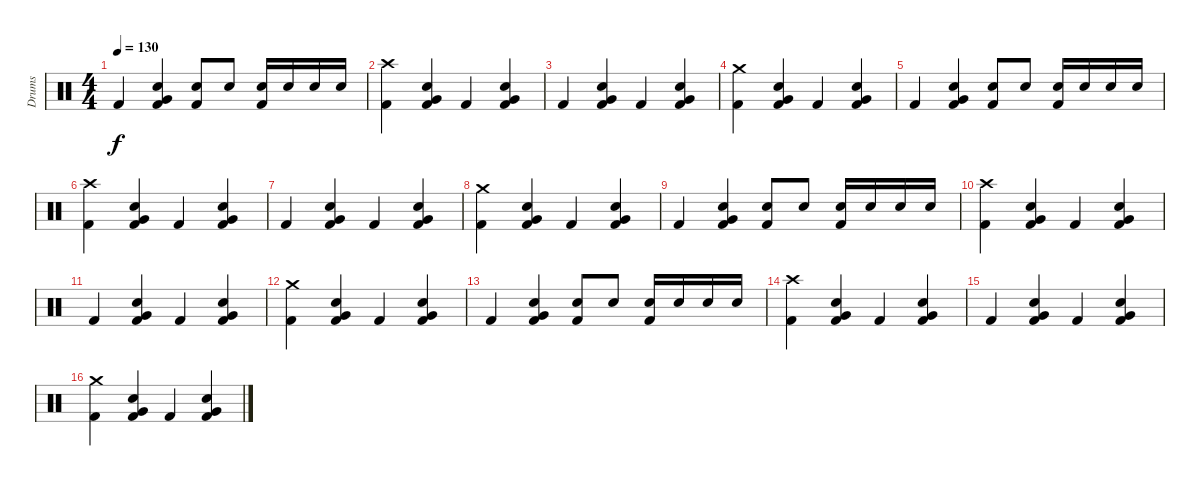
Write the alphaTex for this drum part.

\track ("Drums" "Drums") {instrument percussion}
\staff {score}
\articulation defaults
\ts (4 4)
\tempo 130
\clef neutral
\ks c "Kick (hit) 2".4{dy f}
("Electric Snare (hit)" "Very Low Tom (hit)" "Kick (hit) 2").4 ("Electric Snare (hit)" "Kick (hit) 2").8 "Electric Snare (hit)".8 ("Electric Snare (hit)" "Kick (hit) 2").16 "Electric Snare (hit)".16 "Electric Snare (hit)".16 "Electric Snare (hit)".16 |
("Crash high (hit)" "Kick (hit) 2").4 ("Electric Snare (hit)" "Very Low Tom (hit)" "Kick (hit) 2").4 "Kick (hit) 2".4 ("Electric Snare (hit)" "Very Low Tom (hit)" "Kick (hit) 2").4 |
"Kick (hit) 2".4 ("Electric Snare (hit)" "Very Low Tom (hit)" "Kick (hit) 2").4 "Kick (hit) 2".4 ("Electric Snare (hit)" "Very Low Tom (hit)" "Kick (hit) 2").4 |
("Crash medium (hit)" "Kick (hit) 2").4 ("Electric Snare (hit)" "Very Low Tom (hit)" "Kick (hit) 2").4 "Kick (hit) 2".4 ("Electric Snare (hit)" "Very Low Tom (hit)" "Kick (hit) 2").4 |
"Kick (hit) 2".4 ("Electric Snare (hit)" "Very Low Tom (hit)" "Kick (hit) 2").4 ("Electric Snare (hit)" "Kick (hit) 2").8 "Electric Snare (hit)".8 ("Electric Snare (hit)" "Kick (hit) 2").16 "Electric Snare (hit)".16 "Electric Snare (hit)".16 "Electric Snare (hit)".16 |
("Crash high (hit)" "Kick (hit) 2").4 ("Electric Snare (hit)" "Very Low Tom (hit)" "Kick (hit) 2").4 "Kick (hit) 2".4 ("Electric Snare (hit)" "Very Low Tom (hit)" "Kick (hit) 2").4 |
"Kick (hit) 2".4 ("Electric Snare (hit)" "Very Low Tom (hit)" "Kick (hit) 2").4 "Kick (hit) 2".4 ("Electric Snare (hit)" "Very Low Tom (hit)" "Kick (hit) 2").4 |
("Crash medium (hit)" "Kick (hit) 2").4 ("Electric Snare (hit)" "Very Low Tom (hit)" "Kick (hit) 2").4 "Kick (hit) 2".4 ("Electric Snare (hit)" "Very Low Tom (hit)" "Kick (hit) 2").4 |
"Kick (hit) 2".4 ("Electric Snare (hit)" "Very Low Tom (hit)" "Kick (hit) 2").4 ("Electric Snare (hit)" "Kick (hit) 2").8 "Electric Snare (hit)".8 ("Electric Snare (hit)" "Kick (hit) 2").16 "Electric Snare (hit)".16 "Electric Snare (hit)".16 "Electric Snare (hit)".16 |
("Crash high (hit)" "Kick (hit) 2").4 ("Electric Snare (hit)" "Very Low Tom (hit)" "Kick (hit) 2").4 "Kick (hit) 2".4 ("Electric Snare (hit)" "Very Low Tom (hit)" "Kick (hit) 2").4 |
"Kick (hit) 2".4 ("Electric Snare (hit)" "Very Low Tom (hit)" "Kick (hit) 2").4 "Kick (hit) 2".4 ("Electric Snare (hit)" "Very Low Tom (hit)" "Kick (hit) 2").4 |
("Crash medium (hit)" "Kick (hit) 2").4 ("Electric Snare (hit)" "Very Low Tom (hit)" "Kick (hit) 2").4 "Kick (hit) 2".4 ("Electric Snare (hit)" "Very Low Tom (hit)" "Kick (hit) 2").4 |
"Kick (hit) 2".4 ("Electric Snare (hit)" "Very Low Tom (hit)" "Kick (hit) 2").4 ("Electric Snare (hit)" "Kick (hit) 2").8 "Electric Snare (hit)".8 ("Electric Snare (hit)" "Kick (hit) 2").16 "Electric Snare (hit)".16 "Electric Snare (hit)".16 "Electric Snare (hit)".16 |
("Crash high (hit)" "Kick (hit) 2").4 ("Electric Snare (hit)" "Very Low Tom (hit)" "Kick (hit) 2").4 "Kick (hit) 2".4 ("Electric Snare (hit)" "Very Low Tom (hit)" "Kick (hit) 2").4 |
"Kick (hit) 2".4 ("Electric Snare (hit)" "Very Low Tom (hit)" "Kick (hit) 2").4 "Kick (hit) 2".4 ("Electric Snare (hit)" "Very Low Tom (hit)" "Kick (hit) 2").4 |
("Crash medium (hit)" "Kick (hit) 2").4 ("Electric Snare (hit)" "Very Low Tom (hit)" "Kick (hit) 2").4 "Kick (hit) 2".4 ("Electric Snare (hit)" "Very Low Tom (hit)" "Kick (hit) 2").4
